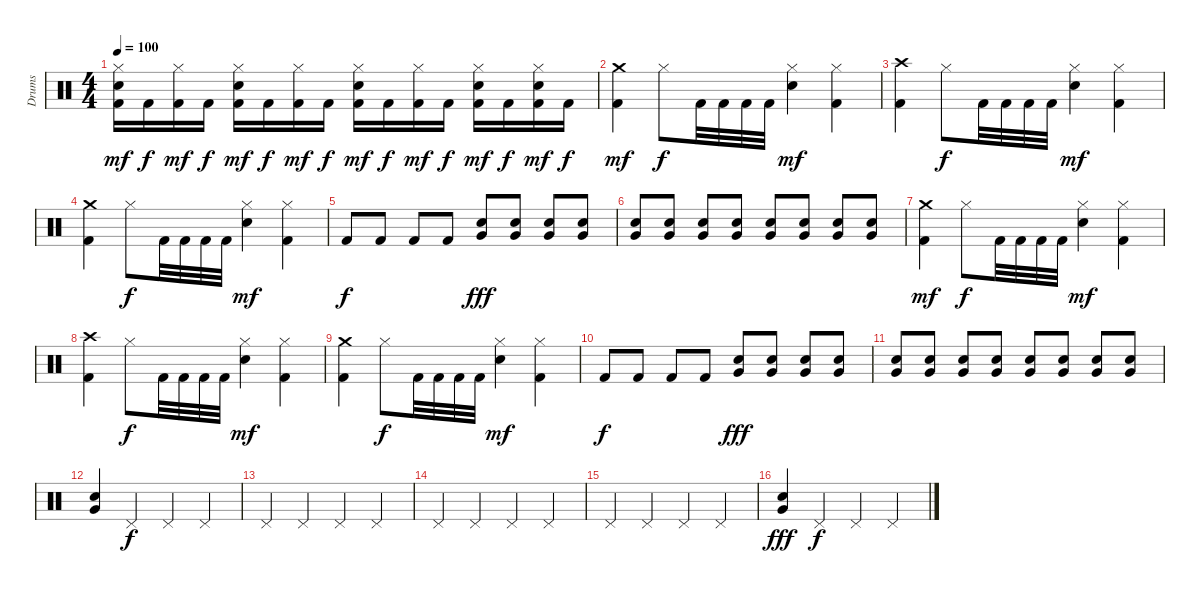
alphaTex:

\track ("Drums" "Drums") {instrument percussion}
\staff {score}
\articulation defaults
\ts (4 4)
\tempo 100
\clef neutral
\ks c
("Hi-Hat (closed)" "Snare (hit) 2" "Kick (hit) 2").16{dy mf} "Kick (hit) 2".16{dy f} ("Hi-Hat (closed)" "Kick (hit) 2").16{dy mf} "Kick (hit) 2".16{dy f} ("Hi-Hat (closed)" "Snare (hit) 2" "Kick (hit) 2").16{dy mf} "Kick (hit) 2".16{dy f} ("Hi-Hat (closed)" "Kick (hit) 2").16{dy mf} "Kick (hit) 2".16{dy f} ("Hi-Hat (closed)" "Snare (hit) 2" "Kick (hit) 2").16{dy mf} "Kick (hit) 2".16{dy f} ("Hi-Hat (closed)" "Kick (hit) 2").16{dy mf} "Kick (hit) 2".16{dy f} ("Hi-Hat (closed)" "Snare (hit) 2" "Kick (hit) 2").16{dy mf} "Kick (hit) 2".16{dy f} ("Hi-Hat (closed)" "Snare (hit) 2" "Kick (hit) 2").16{dy mf} "Kick (hit) 2".16{dy f} |
("Crash medium (hit)" "Kick (hit) 2").4{dy mf} "Hi-Hat (closed)".8{dy f} "Kick (hit) 2".32 "Kick (hit) 2".32 "Kick (hit) 2".32 "Kick (hit) 2".32 ("Hi-Hat (closed)" "Snare (hit) 2").4{dy mf} ("Hi-Hat (closed)" "Kick (hit) 2").4 |
("Crash high (hit)" "Kick (hit) 2").4 "Hi-Hat (closed)".8{dy f} "Kick (hit) 2".32 "Kick (hit) 2".32 "Kick (hit) 2".32 "Kick (hit) 2".32 ("Hi-Hat (closed)" "Snare (hit) 2").4{dy mf} ("Hi-Hat (closed)" "Kick (hit) 2").4 |
("Crash medium (hit)" "Kick (hit) 2").4 "Hi-Hat (closed)".8{dy f} "Kick (hit) 2".32 "Kick (hit) 2".32 "Kick (hit) 2".32 "Kick (hit) 2".32 ("Hi-Hat (closed)" "Snare (hit) 2").4{dy mf} ("Hi-Hat (closed)" "Kick (hit) 2").4 |
"Kick (hit) 2".8{dy f} "Kick (hit) 2".8 "Kick (hit) 2".8 "Kick (hit) 2".8 ("Snare (hit) 2" "Very Low Tom (hit)").8{dy fff} ("Snare (hit) 2" "Very Low Tom (hit)").8 ("Snare (hit) 2" "Very Low Tom (hit)").8 ("Snare (hit) 2" "Very Low Tom (hit)").8 |
("Snare (hit) 2" "Very Low Tom (hit)").8 ("Snare (hit) 2" "Very Low Tom (hit)").8 ("Snare (hit) 2" "Very Low Tom (hit)").8 ("Snare (hit) 2" "Very Low Tom (hit)").8 ("Snare (hit) 2" "Very Low Tom (hit)").8 ("Snare (hit) 2" "Very Low Tom (hit)").8 ("Snare (hit) 2" "Very Low Tom (hit)").8 ("Snare (hit) 2" "Very Low Tom (hit)").8 |
("Crash medium (hit)" "Kick (hit) 2").4{dy mf} "Hi-Hat (closed)".8{dy f} "Kick (hit) 2".32 "Kick (hit) 2".32 "Kick (hit) 2".32 "Kick (hit) 2".32 ("Hi-Hat (closed)" "Snare (hit) 2").4{dy mf} ("Hi-Hat (closed)" "Kick (hit) 2").4 |
("Crash high (hit)" "Kick (hit) 2").4 "Hi-Hat (closed)".8{dy f} "Kick (hit) 2".32 "Kick (hit) 2".32 "Kick (hit) 2".32 "Kick (hit) 2".32 ("Hi-Hat (closed)" "Snare (hit) 2").4{dy mf} ("Hi-Hat (closed)" "Kick (hit) 2").4 |
("Crash medium (hit)" "Kick (hit) 2").4 "Hi-Hat (closed)".8{dy f} "Kick (hit) 2".32 "Kick (hit) 2".32 "Kick (hit) 2".32 "Kick (hit) 2".32 ("Hi-Hat (closed)" "Snare (hit) 2").4{dy mf} ("Hi-Hat (closed)" "Kick (hit) 2").4 |
"Kick (hit) 2".8{dy f} "Kick (hit) 2".8 "Kick (hit) 2".8 "Kick (hit) 2".8 ("Snare (hit) 2" "Very Low Tom (hit)").8{dy fff} ("Snare (hit) 2" "Very Low Tom (hit)").8 ("Snare (hit) 2" "Very Low Tom (hit)").8 ("Snare (hit) 2" "Very Low Tom (hit)").8 |
("Snare (hit) 2" "Very Low Tom (hit)").8 ("Snare (hit) 2" "Very Low Tom (hit)").8 ("Snare (hit) 2" "Very Low Tom (hit)").8 ("Snare (hit) 2" "Very Low Tom (hit)").8 ("Snare (hit) 2" "Very Low Tom (hit)").8 ("Snare (hit) 2" "Very Low Tom (hit)").8 ("Snare (hit) 2" "Very Low Tom (hit)").8 ("Snare (hit) 2" "Very Low Tom (hit)").8 |
("Snare (hit) 2" "Very Low Tom (hit)").4 "Pedal Hi-Hat (hit)".4{dy f} "Pedal Hi-Hat (hit)".4 "Pedal Hi-Hat (hit)".4 |
"Pedal Hi-Hat (hit)".4 "Pedal Hi-Hat (hit)".4 "Pedal Hi-Hat (hit)".4 "Pedal Hi-Hat (hit)".4 |
"Pedal Hi-Hat (hit)".4 "Pedal Hi-Hat (hit)".4 "Pedal Hi-Hat (hit)".4 "Pedal Hi-Hat (hit)".4 |
"Pedal Hi-Hat (hit)".4 "Pedal Hi-Hat (hit)".4 "Pedal Hi-Hat (hit)".4 "Pedal Hi-Hat (hit)".4 |
("Snare (hit) 2" "Very Low Tom (hit)").4{dy fff} "Pedal Hi-Hat (hit)".4{dy f} "Pedal Hi-Hat (hit)".4 "Pedal Hi-Hat (hit)".4
